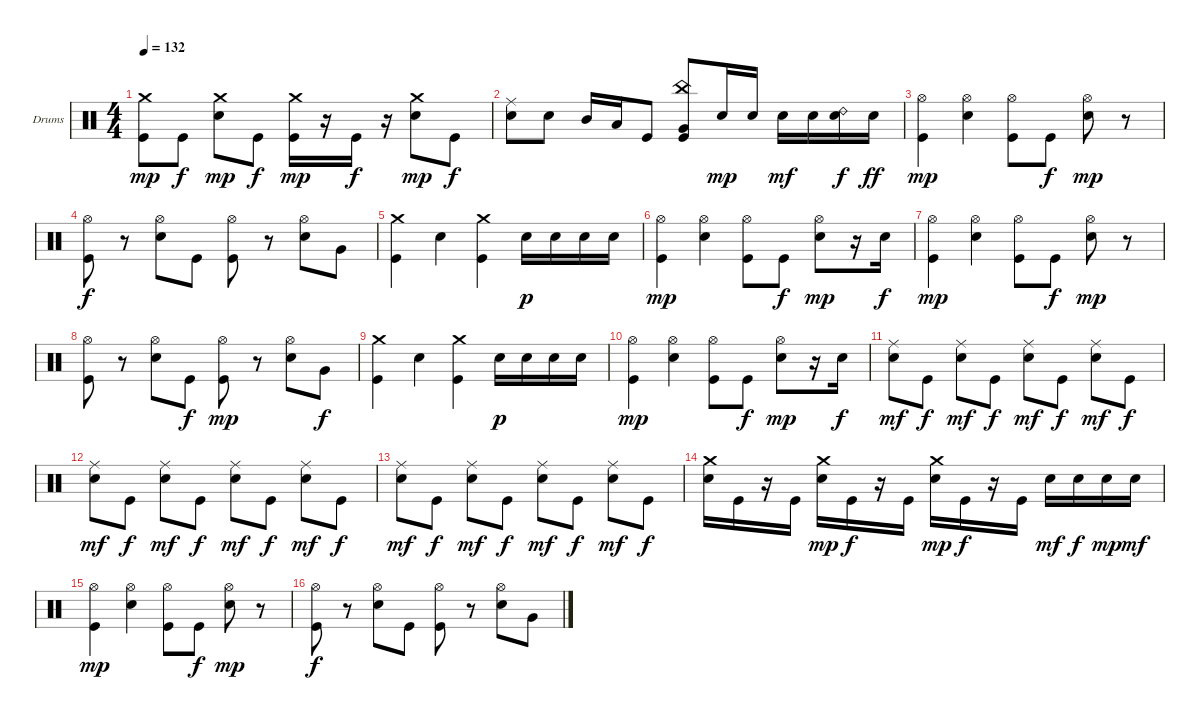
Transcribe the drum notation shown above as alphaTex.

\bracketExtendMode groupsimilarinstruments
\firstSystemTrackNameOrientation horizontal
\otherSystemsTrackNameOrientation horizontal
\track ("Drumkit" "Drums") {instrument percussion}
\staff {score}
\articulation defaults
\ts (4 4)
\tempo 132
\clef neutral
\ks c
("Crash medium (hit)" "Kick (hit)").8{dy mp} "Kick (hit)".8{dy f} ("Crash medium (hit)" "Snare (hit) 2").8{dy mp} "Kick (hit)".8{dy f} ("Crash medium (hit)" "Kick (hit)").16{dy mp} r.16 "Kick (hit)".16{dy f} r.16 ("Crash medium (hit)" "Snare (hit) 2").8{dy mp} "Kick (hit)".8{dy f} |
("Ride (middle)" "Snare (hit) 2").8 "Snare (hit) 2".8 "Mid Tom (hit)".16 "Low Tom (hit)".16 "Kick (hit)".8 ("China (hit)" "Very Low Tom (hit)" "Kick (hit)").8 "Snare (hit) 2".16{dy mp} "Snare (hit) 2".16 "Snare (hit) 2".16{dy mf} "Snare (hit) 2".16 ("Ride (bell) 2" "Snare (hit) 2").16{dy f} "Snare (hit) 2".16{dy ff} |
("Hi-Hat (open)" "Kick (hit)").4{dy mp} ("Hi-Hat (open)" "Snare (hit) 2").4 ("Hi-Hat (open)" "Kick (hit)").8 "Kick (hit)".8{dy f} ("Hi-Hat (open)" "Snare (hit) 2").8{dy mp} r.8 |
("Hi-Hat (open)" "Kick (hit)").8{dy f} r.8 ("Hi-Hat (open)" "Snare (hit) 2").8 "Kick (hit)".8 ("Hi-Hat (open)" "Kick (hit)").8 r.8 ("Hi-Hat (open)" "Snare (hit) 2").8 "Very Low Tom (hit)".8 |
("Crash medium (hit)" "Kick (hit)").4 "Snare (hit) 2".4 ("Crash medium (hit)" "Kick (hit)").4 "Snare (hit) 2".16{dy p} "Snare (hit) 2".16 "Snare (hit) 2".16 "Snare (hit) 2".16 |
("Hi-Hat (open)" "Kick (hit)").4{dy mp} ("Hi-Hat (open)" "Snare (hit) 2").4 ("Hi-Hat (open)" "Kick (hit)").8 "Kick (hit)".8{dy f} ("Hi-Hat (open)" "Snare (hit) 2").8{dy mp} r.16 "Snare (hit) 2".16{dy f} |
("Hi-Hat (open)" "Kick (hit)").4{dy mp} ("Hi-Hat (open)" "Snare (hit) 2").4 ("Hi-Hat (open)" "Kick (hit)").8 "Kick (hit)".8{dy f} ("Hi-Hat (open)" "Snare (hit) 2").8{dy mp} r.8 |
("Hi-Hat (open)" "Kick (hit)").8 r.8 ("Hi-Hat (open)" "Snare (hit) 2").8 "Kick (hit)".8{dy f} ("Hi-Hat (open)" "Kick (hit)").8{dy mp} r.8 ("Hi-Hat (open)" "Snare (hit) 2").8 "Very Low Tom (hit)".8{dy f} |
("Crash medium (hit)" "Kick (hit)").4 "Snare (hit) 2".4 ("Crash medium (hit)" "Kick (hit)").4 "Snare (hit) 2".16{dy p} "Snare (hit) 2".16 "Snare (hit) 2".16 "Snare (hit) 2".16 |
("Hi-Hat (open)" "Kick (hit)").4{dy mp} ("Hi-Hat (open)" "Snare (hit) 2").4 ("Hi-Hat (open)" "Kick (hit)").8 "Kick (hit)".8{dy f} ("Hi-Hat (open)" "Snare (hit) 2").8{dy mp} r.16 "Snare (hit) 2".16{dy f} |
("Ride (middle)" "Snare (hit) 2").8{dy mf} "Kick (hit)".8{dy f} ("Ride (middle)" "Snare (hit) 2").8{dy mf} "Kick (hit)".8{dy f} ("Ride (middle)" "Snare (hit) 2").8{dy mf} "Kick (hit)".8{dy f} ("Ride (middle)" "Snare (hit) 2").8{dy mf} "Kick (hit)".8{dy f} |
("Ride (middle)" "Snare (hit) 2").8{dy mf} "Kick (hit)".8{dy f} ("Ride (middle)" "Snare (hit) 2").8{dy mf} "Kick (hit)".8{dy f} ("Ride (middle)" "Snare (hit) 2").8{dy mf} "Kick (hit)".8{dy f} ("Ride (middle)" "Snare (hit) 2").8{dy mf} "Kick (hit)".8{dy f} |
("Ride (middle)" "Snare (hit) 2").8{dy mf} "Kick (hit)".8{dy f} ("Ride (middle)" "Snare (hit) 2").8{dy mf} "Kick (hit)".8{dy f} ("Ride (middle)" "Snare (hit) 2").8{dy mf} "Kick (hit)".8{dy f} ("Ride (middle)" "Snare (hit) 2").8{dy mf} "Kick (hit)".8{dy f} |
("Crash medium (hit)" "Snare (hit) 2").16 "Kick (hit)".16 r.16 "Kick (hit)".16 ("Crash medium (hit)" "Snare (hit) 2").16{dy mp} "Kick (hit)".16{dy f} r.16 "Kick (hit)".16 ("Crash medium (hit)" "Snare (hit) 2").16{dy mp} "Kick (hit)".16{dy f} r.16 "Kick (hit)".16 "Snare (hit) 2".16{dy mf} "Snare (hit) 2".16{dy f} "Snare (hit) 2".16{dy mp} "Snare (hit) 2".16{dy mf} |
("Hi-Hat (open)" "Kick (hit)").4{dy mp} ("Hi-Hat (open)" "Snare (hit) 2").4 ("Hi-Hat (open)" "Kick (hit)").8 "Kick (hit)".8{dy f} ("Hi-Hat (open)" "Snare (hit) 2").8{dy mp} r.8 |
("Hi-Hat (open)" "Kick (hit)").8{dy f} r.8 ("Hi-Hat (open)" "Snare (hit) 2").8 "Kick (hit)".8 ("Hi-Hat (open)" "Kick (hit)").8 r.8 ("Hi-Hat (open)" "Snare (hit) 2").8 "Very Low Tom (hit)".8
